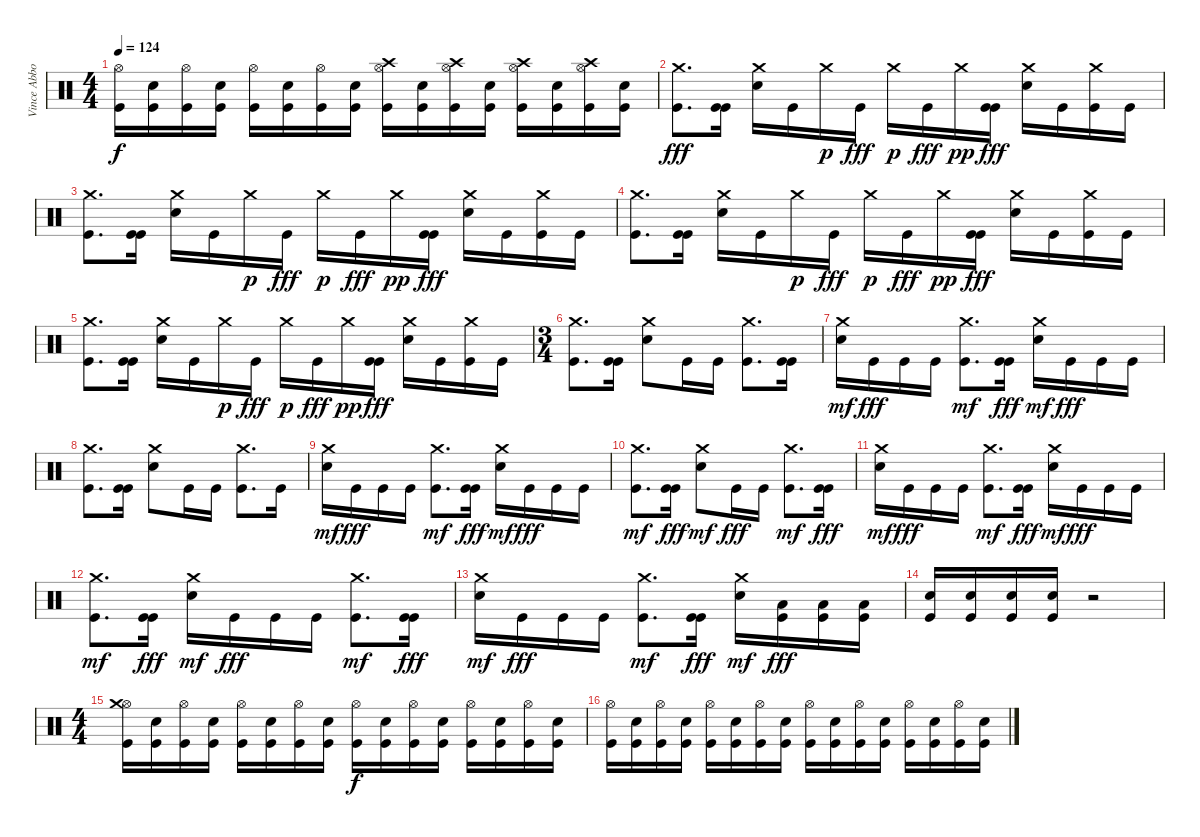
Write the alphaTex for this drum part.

\track ("Vince Abbott (Drums)" "Vince Abbo") {instrument percussion}
\staff {score}
\articulation defaults
\ts (4 4)
\tempo 124
\clef neutral
\ks c
("Hi-Hat (open)" "Kick (hit)").16{dy f} ("Electric Snare (hit)" "Kick (hit)").16 ("Hi-Hat (open)" "Kick (hit)").16 ("Electric Snare (hit)" "Kick (hit)").16 ("Hi-Hat (open)" "Kick (hit)").16 ("Electric Snare (hit)" "Kick (hit)").16 ("Hi-Hat (open)" "Kick (hit)").16 ("Electric Snare (hit)" "Kick (hit)").16 ("Crash high (hit)" "Hi-Hat (open)" "Kick (hit)").16 ("Electric Snare (hit)" "Kick (hit)").16 ("Crash high (hit)" "Hi-Hat (open)" "Kick (hit)").16 ("Electric Snare (hit)" "Kick (hit)").16 ("Crash high (hit)" "Hi-Hat (open)" "Kick (hit)").16 ("Electric Snare (hit)" "Kick (hit)").16 ("Crash high (hit)" "Hi-Hat (open)" "Kick (hit)").16 ("Electric Snare (hit)" "Kick (hit)").16 |
("Crash medium (hit)" "Kick (hit)").8{d dy fff} ("Kick (hit)" "Kick (hit)").16 ("Crash medium (hit)" "Electric Snare (hit)").16 "Kick (hit)".16 "Crash medium (hit)".16{dy p} "Kick (hit)".16{dy fff} "Crash medium (hit)".16{dy p} "Kick (hit)".16{dy fff} "Crash medium (hit)".16{dy pp} ("Kick (hit)" "Kick (hit)").16{dy fff} ("Crash medium (hit)" "Electric Snare (hit)").16 "Kick (hit)".16 ("Crash medium (hit)" "Kick (hit)").16 "Kick (hit)".16 |
("Crash medium (hit)" "Kick (hit)").8{d} ("Kick (hit)" "Kick (hit)").16 ("Crash medium (hit)" "Electric Snare (hit)").16 "Kick (hit)".16 "Crash medium (hit)".16{dy p} "Kick (hit)".16{dy fff} "Crash medium (hit)".16{dy p} "Kick (hit)".16{dy fff} "Crash medium (hit)".16{dy pp} ("Kick (hit)" "Kick (hit)").16{dy fff} ("Crash medium (hit)" "Electric Snare (hit)").16 "Kick (hit)".16 ("Crash medium (hit)" "Kick (hit)").16 "Kick (hit)".16 |
("Crash medium (hit)" "Kick (hit)").8{d} ("Kick (hit)" "Kick (hit)").16 ("Crash medium (hit)" "Electric Snare (hit)").16 "Kick (hit)".16 "Crash medium (hit)".16{dy p} "Kick (hit)".16{dy fff} "Crash medium (hit)".16{dy p} "Kick (hit)".16{dy fff} "Crash medium (hit)".16{dy pp} ("Kick (hit)" "Kick (hit)").16{dy fff} ("Crash medium (hit)" "Electric Snare (hit)").16 "Kick (hit)".16 ("Crash medium (hit)" "Kick (hit)").16 "Kick (hit)".16 |
("Crash medium (hit)" "Kick (hit)").8{d} ("Kick (hit)" "Kick (hit)").16 ("Crash medium (hit)" "Electric Snare (hit)").16 "Kick (hit)".16 "Crash medium (hit)".16{dy p} "Kick (hit)".16{dy fff} "Crash medium (hit)".16{dy p} "Kick (hit)".16{dy fff} "Crash medium (hit)".16{dy pp} ("Kick (hit)" "Kick (hit)").16{dy fff} ("Crash medium (hit)" "Electric Snare (hit)").16 "Kick (hit)".16 ("Crash medium (hit)" "Kick (hit)").16 "Kick (hit)".16 |
\ts (3 4)
("Crash medium (hit)" "Kick (hit)").8{d} ("Kick (hit)" "Kick (hit)").16 ("Crash medium (hit)" "Electric Snare (hit)").8 "Kick (hit)".16 "Kick (hit)".16 ("Crash medium (hit)" "Kick (hit)").8{d} ("Kick (hit)" "Kick (hit)").16 |
("Electric Snare (hit)" "Crash medium (hit)").16{dy mf} "Kick (hit)".16{dy fff} "Kick (hit)".16 "Kick (hit)".16 ("Kick (hit)" "Crash medium (hit)").8{d dy mf} ("Kick (hit)" "Kick (hit)").16{dy fff} ("Electric Snare (hit)" "Crash medium (hit)").16{dy mf} "Kick (hit)".16{dy fff} "Kick (hit)".16 "Kick (hit)".16 |
("Crash medium (hit)" "Kick (hit)").8{d} ("Kick (hit)" "Kick (hit)").16 ("Crash medium (hit)" "Electric Snare (hit)").8 "Kick (hit)".16 "Kick (hit)".16 ("Crash medium (hit)" "Kick (hit)").8{d} "Kick (hit)".16 |
("Electric Snare (hit)" "Crash medium (hit)").16{dy mf} "Kick (hit)".16{dy fff} "Kick (hit)".16 "Kick (hit)".16 ("Kick (hit)" "Crash medium (hit)").8{d dy mf} ("Kick (hit)" "Kick (hit)").16{dy fff} ("Electric Snare (hit)" "Crash medium (hit)").16{dy mf} "Kick (hit)".16{dy fff} "Kick (hit)".16 "Kick (hit)".16 |
("Kick (hit)" "Crash medium (hit)").8{d dy mf} ("Kick (hit)" "Kick (hit)").16{dy fff} ("Electric Snare (hit)" "Crash medium (hit)").8{dy mf} "Kick (hit)".16{dy fff} "Kick (hit)".16 ("Kick (hit)" "Crash medium (hit)").8{d dy mf} ("Kick (hit)" "Kick (hit)").16{dy fff} |
("Electric Snare (hit)" "Crash medium (hit)").16{dy mf} "Kick (hit)".16{dy fff} "Kick (hit)".16 "Kick (hit)".16 ("Kick (hit)" "Crash medium (hit)").8{d dy mf} ("Kick (hit)" "Kick (hit)").16{dy fff} ("Electric Snare (hit)" "Crash medium (hit)").16{dy mf} "Kick (hit)".16{dy fff} "Kick (hit)".16 "Kick (hit)".16 |
("Kick (hit)" "Crash medium (hit)").8{d dy mf} ("Kick (hit)" "Kick (hit)").16{dy fff} ("Electric Snare (hit)" "Crash medium (hit)").16{dy mf} "Kick (hit)".16{dy fff} "Kick (hit)".16 "Kick (hit)".16 ("Kick (hit)" "Crash medium (hit)").8{d dy mf} ("Kick (hit)" "Kick (hit)").16{dy fff} |
("Electric Snare (hit)" "Crash medium (hit)").16{dy mf} "Kick (hit)".16{dy fff} "Kick (hit)".16 "Kick (hit)".16 ("Kick (hit)" "Crash medium (hit)").8{d dy mf} ("Kick (hit)" "Kick (hit)").16{dy fff} ("Electric Snare (hit)" "Crash medium (hit)").16{dy mf} ("Kick (hit)" "Low Floor Tom (hit)").16{dy fff} ("Kick (hit)" "Low Floor Tom (hit)").16 ("Low Floor Tom (hit)" "Kick (hit)").16 |
("Kick (hit)" "Electric Snare (hit)").16 ("Kick (hit)" "Electric Snare (hit)").16 ("Kick (hit)" "Electric Snare (hit)").16 ("Kick (hit)" "Electric Snare (hit)").16 r.2 |
\ts (4 4)
("Hi-Hat (open)" "Kick (hit)" "Crash medium (hit)").16 ("Electric Snare (hit)" "Kick (hit)").16 ("Hi-Hat (open)" "Kick (hit)").16 ("Electric Snare (hit)" "Kick (hit)").16 ("Hi-Hat (open)" "Kick (hit)").16 ("Electric Snare (hit)" "Kick (hit)").16 ("Hi-Hat (open)" "Kick (hit)").16 ("Electric Snare (hit)" "Kick (hit)").16 ("Hi-Hat (open)" "Kick (hit)").16{dy f} ("Electric Snare (hit)" "Kick (hit)").16 ("Hi-Hat (open)" "Kick (hit)").16 ("Electric Snare (hit)" "Kick (hit)").16 ("Hi-Hat (open)" "Kick (hit)").16 ("Electric Snare (hit)" "Kick (hit)").16 ("Hi-Hat (open)" "Kick (hit)").16 ("Electric Snare (hit)" "Kick (hit)").16 |
("Hi-Hat (open)" "Kick (hit)").16 ("Electric Snare (hit)" "Kick (hit)").16 ("Hi-Hat (open)" "Kick (hit)").16 ("Electric Snare (hit)" "Kick (hit)").16 ("Hi-Hat (open)" "Kick (hit)").16 ("Electric Snare (hit)" "Kick (hit)").16 ("Hi-Hat (open)" "Kick (hit)").16 ("Electric Snare (hit)" "Kick (hit)").16 ("Hi-Hat (open)" "Kick (hit)").16 ("Electric Snare (hit)" "Kick (hit)").16 ("Hi-Hat (open)" "Kick (hit)").16 ("Electric Snare (hit)" "Kick (hit)").16 ("Hi-Hat (open)" "Kick (hit)").16 ("Electric Snare (hit)" "Kick (hit)").16 ("Hi-Hat (open)" "Kick (hit)").16 ("Electric Snare (hit)" "Kick (hit)").16
